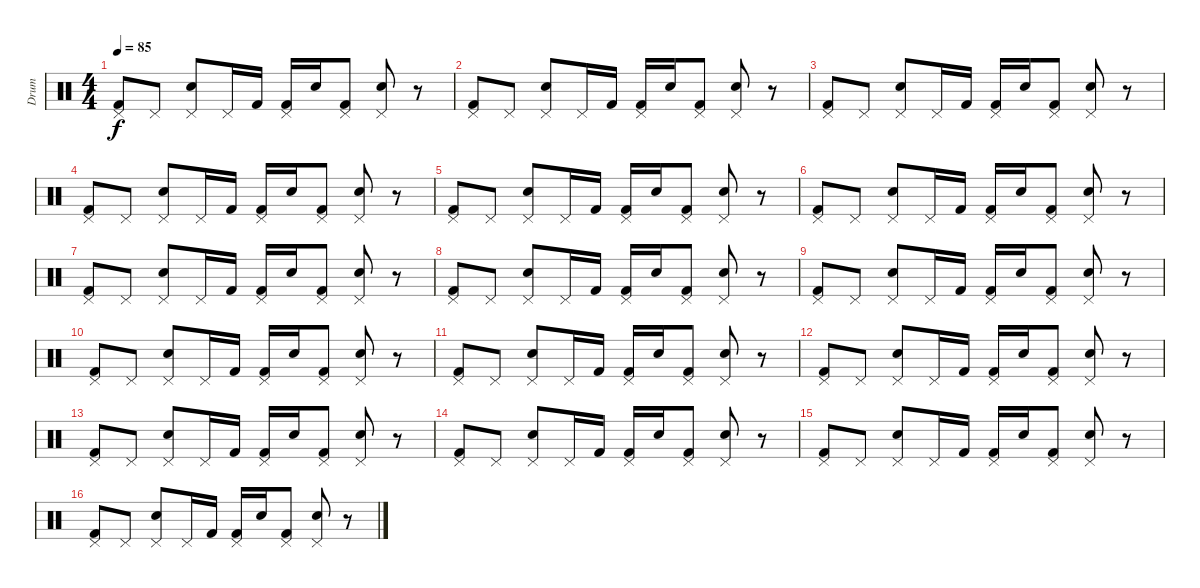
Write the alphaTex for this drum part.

\track ("Drum" "Drum") {instrument percussion}
\staff {score}
\articulation defaults
\ts (4 4)
\tempo 85
\clef neutral
\ks c
("Pedal Hi-Hat (hit)" "Kick (hit) 2").8{dy f} "Pedal Hi-Hat (hit)".8 ("Pedal Hi-Hat (hit)" "Electric Snare (hit)").8 "Pedal Hi-Hat (hit)".16 "Kick (hit) 2".16 ("Pedal Hi-Hat (hit)" "Kick (hit) 2").16 "Electric Snare (hit)".16 ("Pedal Hi-Hat (hit)" "Kick (hit) 2").8 ("Pedal Hi-Hat (hit)" "Electric Snare (hit)").8 r.8 |
("Pedal Hi-Hat (hit)" "Kick (hit) 2").8 "Pedal Hi-Hat (hit)".8 ("Pedal Hi-Hat (hit)" "Electric Snare (hit)").8 "Pedal Hi-Hat (hit)".16 "Kick (hit) 2".16 ("Pedal Hi-Hat (hit)" "Kick (hit) 2").16 "Electric Snare (hit)".16 ("Pedal Hi-Hat (hit)" "Kick (hit) 2").8 ("Pedal Hi-Hat (hit)" "Electric Snare (hit)").8 r.8 |
("Pedal Hi-Hat (hit)" "Kick (hit) 2").8 "Pedal Hi-Hat (hit)".8 ("Pedal Hi-Hat (hit)" "Electric Snare (hit)").8 "Pedal Hi-Hat (hit)".16 "Kick (hit) 2".16 ("Pedal Hi-Hat (hit)" "Kick (hit) 2").16 "Electric Snare (hit)".16 ("Pedal Hi-Hat (hit)" "Kick (hit) 2").8 ("Pedal Hi-Hat (hit)" "Electric Snare (hit)").8 r.8 |
("Pedal Hi-Hat (hit)" "Kick (hit) 2").8 "Pedal Hi-Hat (hit)".8 ("Pedal Hi-Hat (hit)" "Electric Snare (hit)").8 "Pedal Hi-Hat (hit)".16 "Kick (hit) 2".16 ("Pedal Hi-Hat (hit)" "Kick (hit) 2").16 "Electric Snare (hit)".16 ("Pedal Hi-Hat (hit)" "Kick (hit) 2").8 ("Pedal Hi-Hat (hit)" "Electric Snare (hit)").8 r.8 |
("Pedal Hi-Hat (hit)" "Kick (hit) 2").8 "Pedal Hi-Hat (hit)".8 ("Pedal Hi-Hat (hit)" "Electric Snare (hit)").8 "Pedal Hi-Hat (hit)".16 "Kick (hit) 2".16 ("Pedal Hi-Hat (hit)" "Kick (hit) 2").16 "Electric Snare (hit)".16 ("Pedal Hi-Hat (hit)" "Kick (hit) 2").8 ("Pedal Hi-Hat (hit)" "Electric Snare (hit)").8 r.8 |
("Pedal Hi-Hat (hit)" "Kick (hit) 2").8 "Pedal Hi-Hat (hit)".8 ("Pedal Hi-Hat (hit)" "Electric Snare (hit)").8 "Pedal Hi-Hat (hit)".16 "Kick (hit) 2".16 ("Pedal Hi-Hat (hit)" "Kick (hit) 2").16 "Electric Snare (hit)".16 ("Pedal Hi-Hat (hit)" "Kick (hit) 2").8 ("Pedal Hi-Hat (hit)" "Electric Snare (hit)").8 r.8 |
("Pedal Hi-Hat (hit)" "Kick (hit) 2").8 "Pedal Hi-Hat (hit)".8 ("Pedal Hi-Hat (hit)" "Electric Snare (hit)").8 "Pedal Hi-Hat (hit)".16 "Kick (hit) 2".16 ("Pedal Hi-Hat (hit)" "Kick (hit) 2").16 "Electric Snare (hit)".16 ("Pedal Hi-Hat (hit)" "Kick (hit) 2").8 ("Pedal Hi-Hat (hit)" "Electric Snare (hit)").8 r.8 |
("Pedal Hi-Hat (hit)" "Kick (hit) 2").8 "Pedal Hi-Hat (hit)".8 ("Pedal Hi-Hat (hit)" "Electric Snare (hit)").8 "Pedal Hi-Hat (hit)".16 "Kick (hit) 2".16 ("Pedal Hi-Hat (hit)" "Kick (hit) 2").16 "Electric Snare (hit)".16 ("Pedal Hi-Hat (hit)" "Kick (hit) 2").8 ("Pedal Hi-Hat (hit)" "Electric Snare (hit)").8 r.8 |
("Pedal Hi-Hat (hit)" "Kick (hit) 2").8 "Pedal Hi-Hat (hit)".8 ("Pedal Hi-Hat (hit)" "Electric Snare (hit)").8 "Pedal Hi-Hat (hit)".16 "Kick (hit) 2".16 ("Pedal Hi-Hat (hit)" "Kick (hit) 2").16 "Electric Snare (hit)".16 ("Pedal Hi-Hat (hit)" "Kick (hit) 2").8 ("Pedal Hi-Hat (hit)" "Electric Snare (hit)").8 r.8 |
("Pedal Hi-Hat (hit)" "Kick (hit) 2").8 "Pedal Hi-Hat (hit)".8 ("Pedal Hi-Hat (hit)" "Electric Snare (hit)").8 "Pedal Hi-Hat (hit)".16 "Kick (hit) 2".16 ("Pedal Hi-Hat (hit)" "Kick (hit) 2").16 "Electric Snare (hit)".16 ("Pedal Hi-Hat (hit)" "Kick (hit) 2").8 ("Pedal Hi-Hat (hit)" "Electric Snare (hit)").8 r.8 |
("Pedal Hi-Hat (hit)" "Kick (hit) 2").8 "Pedal Hi-Hat (hit)".8 ("Pedal Hi-Hat (hit)" "Electric Snare (hit)").8 "Pedal Hi-Hat (hit)".16 "Kick (hit) 2".16 ("Pedal Hi-Hat (hit)" "Kick (hit) 2").16 "Electric Snare (hit)".16 ("Pedal Hi-Hat (hit)" "Kick (hit) 2").8 ("Pedal Hi-Hat (hit)" "Electric Snare (hit)").8 r.8 |
("Pedal Hi-Hat (hit)" "Kick (hit) 2").8 "Pedal Hi-Hat (hit)".8 ("Pedal Hi-Hat (hit)" "Electric Snare (hit)").8 "Pedal Hi-Hat (hit)".16 "Kick (hit) 2".16 ("Pedal Hi-Hat (hit)" "Kick (hit) 2").16 "Electric Snare (hit)".16 ("Pedal Hi-Hat (hit)" "Kick (hit) 2").8 ("Pedal Hi-Hat (hit)" "Electric Snare (hit)").8 r.8 |
("Pedal Hi-Hat (hit)" "Kick (hit) 2").8 "Pedal Hi-Hat (hit)".8 ("Pedal Hi-Hat (hit)" "Electric Snare (hit)").8 "Pedal Hi-Hat (hit)".16 "Kick (hit) 2".16 ("Pedal Hi-Hat (hit)" "Kick (hit) 2").16 "Electric Snare (hit)".16 ("Pedal Hi-Hat (hit)" "Kick (hit) 2").8 ("Pedal Hi-Hat (hit)" "Electric Snare (hit)").8 r.8 |
("Pedal Hi-Hat (hit)" "Kick (hit) 2").8 "Pedal Hi-Hat (hit)".8 ("Pedal Hi-Hat (hit)" "Electric Snare (hit)").8 "Pedal Hi-Hat (hit)".16 "Kick (hit) 2".16 ("Pedal Hi-Hat (hit)" "Kick (hit) 2").16 "Electric Snare (hit)".16 ("Pedal Hi-Hat (hit)" "Kick (hit) 2").8 ("Pedal Hi-Hat (hit)" "Electric Snare (hit)").8 r.8 |
("Pedal Hi-Hat (hit)" "Kick (hit) 2").8 "Pedal Hi-Hat (hit)".8 ("Pedal Hi-Hat (hit)" "Electric Snare (hit)").8 "Pedal Hi-Hat (hit)".16 "Kick (hit) 2".16 ("Pedal Hi-Hat (hit)" "Kick (hit) 2").16 "Electric Snare (hit)".16 ("Pedal Hi-Hat (hit)" "Kick (hit) 2").8 ("Pedal Hi-Hat (hit)" "Electric Snare (hit)").8 r.8 |
("Pedal Hi-Hat (hit)" "Kick (hit) 2").8 "Pedal Hi-Hat (hit)".8 ("Pedal Hi-Hat (hit)" "Electric Snare (hit)").8 "Pedal Hi-Hat (hit)".16 "Kick (hit) 2".16 ("Pedal Hi-Hat (hit)" "Kick (hit) 2").16 "Electric Snare (hit)".16 ("Pedal Hi-Hat (hit)" "Kick (hit) 2").8 ("Pedal Hi-Hat (hit)" "Electric Snare (hit)").8 r.8
